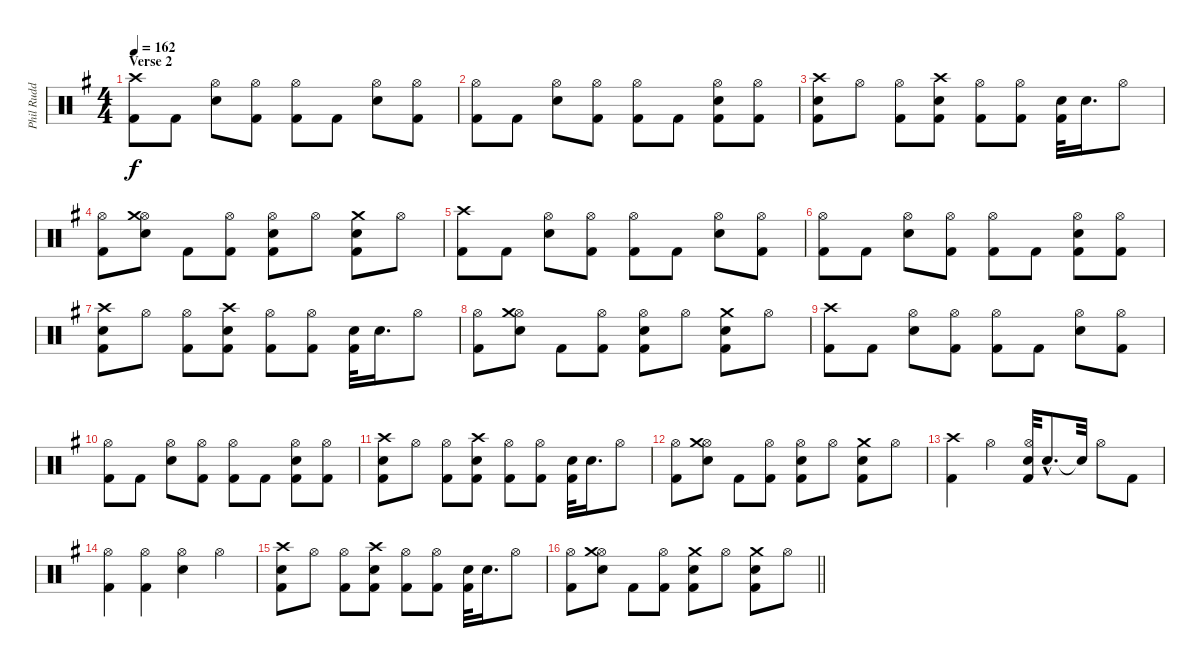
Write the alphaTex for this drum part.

\track ("Phil Rudd" "Phil Rudd") {instrument percussion}
\staff {score}
\articulation defaults
\ts (4 4)
\section ("" "Verse 2")
\tempo 162
\clef neutral
\ks g
("Crash high (hit)" "Kick (hit) 2").8{dy f} "Kick (hit) 2".8 ("Hi-Hat (open)" "Snare (hit) 2").8 ("Kick (hit) 2" "Hi-Hat (open)").8 ("Hi-Hat (open)" "Kick (hit) 2").8 "Kick (hit) 2".8 ("Hi-Hat (open)" "Snare (hit) 2").8 ("Hi-Hat (open)" "Kick (hit) 2").8 |
("Hi-Hat (open)" "Kick (hit) 2").8 "Kick (hit) 2".8 ("Hi-Hat (open)" "Snare (hit) 2").8 ("Hi-Hat (open)" "Kick (hit) 2").8 ("Hi-Hat (open)" "Kick (hit) 2").8 "Kick (hit) 2".8 ("Kick (hit) 2" "Hi-Hat (open)" "Snare (hit) 2").8 ("Kick (hit) 2" "Hi-Hat (open)").8 |
("Crash high (hit)" "Snare (hit) 2" "Kick (hit) 2").8 "Hi-Hat (open)".8 ("Hi-Hat (open)" "Kick (hit) 2").8 ("Crash high (hit)" "Snare (hit) 2" "Kick (hit) 2").8 ("Hi-Hat (open)" "Kick (hit) 2").8 ("Kick (hit) 2" "Hi-Hat (open)").8 ("Snare (hit) 2" "Kick (hit) 2").32 "Snare (hit) 2".16{d} "Hi-Hat (open)".8 |
("Kick (hit) 2" "Hi-Hat (open)").8 ("Hi-Hat (open)" "Crash medium (hit)" "Snare (hit) 2").8 "Kick (hit) 2".8 ("Kick (hit) 2" "Hi-Hat (open)").8 ("Hi-Hat (open)" "Kick (hit) 2" "Snare (hit) 2").8 "Hi-Hat (open)".8 ("Snare (hit) 2" "Kick (hit) 2" "Crash medium (hit)").8 "Hi-Hat (open)".8 |
("Crash high (hit)" "Kick (hit) 2").8 "Kick (hit) 2".8 ("Hi-Hat (open)" "Snare (hit) 2").8 ("Kick (hit) 2" "Hi-Hat (open)").8 ("Hi-Hat (open)" "Kick (hit) 2").8 "Kick (hit) 2".8 ("Hi-Hat (open)" "Snare (hit) 2").8 ("Hi-Hat (open)" "Kick (hit) 2").8 |
("Hi-Hat (open)" "Kick (hit) 2").8 "Kick (hit) 2".8 ("Hi-Hat (open)" "Snare (hit) 2").8 ("Hi-Hat (open)" "Kick (hit) 2").8 ("Hi-Hat (open)" "Kick (hit) 2").8 "Kick (hit) 2".8 ("Kick (hit) 2" "Hi-Hat (open)" "Snare (hit) 2").8 ("Kick (hit) 2" "Hi-Hat (open)").8 |
("Crash high (hit)" "Snare (hit) 2" "Kick (hit) 2").8 "Hi-Hat (open)".8 ("Hi-Hat (open)" "Kick (hit) 2").8 ("Crash high (hit)" "Snare (hit) 2" "Kick (hit) 2").8 ("Hi-Hat (open)" "Kick (hit) 2").8 ("Kick (hit) 2" "Hi-Hat (open)").8 ("Snare (hit) 2" "Kick (hit) 2").32 "Snare (hit) 2".16{d} "Hi-Hat (open)".8 |
("Kick (hit) 2" "Hi-Hat (open)").8 ("Hi-Hat (open)" "Crash medium (hit)" "Snare (hit) 2").8 "Kick (hit) 2".8 ("Kick (hit) 2" "Hi-Hat (open)").8 ("Hi-Hat (open)" "Kick (hit) 2" "Snare (hit) 2").8 "Hi-Hat (open)".8 ("Snare (hit) 2" "Kick (hit) 2" "Crash medium (hit)").8 "Hi-Hat (open)".8 |
("Crash high (hit)" "Kick (hit) 2").8 "Kick (hit) 2".8 ("Hi-Hat (open)" "Snare (hit) 2").8 ("Kick (hit) 2" "Hi-Hat (open)").8 ("Hi-Hat (open)" "Kick (hit) 2").8 "Kick (hit) 2".8 ("Hi-Hat (open)" "Snare (hit) 2").8 ("Hi-Hat (open)" "Kick (hit) 2").8 |
("Hi-Hat (open)" "Kick (hit) 2").8 "Kick (hit) 2".8 ("Hi-Hat (open)" "Snare (hit) 2").8 ("Hi-Hat (open)" "Kick (hit) 2").8 ("Hi-Hat (open)" "Kick (hit) 2").8 "Kick (hit) 2".8 ("Kick (hit) 2" "Hi-Hat (open)" "Snare (hit) 2").8 ("Kick (hit) 2" "Hi-Hat (open)").8 |
("Crash high (hit)" "Snare (hit) 2" "Kick (hit) 2").8 "Hi-Hat (open)".8 ("Hi-Hat (open)" "Kick (hit) 2").8 ("Crash high (hit)" "Snare (hit) 2" "Kick (hit) 2").8 ("Hi-Hat (open)" "Kick (hit) 2").8 ("Kick (hit) 2" "Hi-Hat (open)").8 ("Snare (hit) 2" "Kick (hit) 2").32 "Snare (hit) 2".16{d} "Hi-Hat (open)".8 |
("Kick (hit) 2" "Hi-Hat (open)").8 ("Hi-Hat (open)" "Crash medium (hit)" "Snare (hit) 2").8 "Kick (hit) 2".8 ("Kick (hit) 2" "Hi-Hat (open)").8 ("Hi-Hat (open)" "Kick (hit) 2" "Snare (hit) 2").8 "Hi-Hat (open)".8 ("Snare (hit) 2" "Kick (hit) 2" "Crash medium (hit)").8 "Hi-Hat (open)".8 |
("Crash high (hit)" "Kick (hit) 2").4 "Hi-Hat (open)".4 ("Snare (hit) 2" "Kick (hit) 2" "Hi-Hat (open)").32 "Snare (hit) 2"{hac}.8{d} "Snare (hit)"{t}.32 "Hi-Hat (open)".8 "Kick (hit) 2".8 |
("Hi-Hat (open)" "Kick (hit) 2").4 ("Kick (hit) 2" "Hi-Hat (open)").4 ("Hi-Hat (open)" "Snare (hit) 2").4 "Hi-Hat (open)".4 |
("Crash high (hit)" "Snare (hit) 2" "Kick (hit) 2").8 "Hi-Hat (open)".8 ("Hi-Hat (open)" "Kick (hit) 2").8 ("Crash high (hit)" "Snare (hit) 2" "Kick (hit) 2").8 ("Hi-Hat (open)" "Kick (hit) 2").8 ("Kick (hit) 2" "Hi-Hat (open)").8 ("Snare (hit) 2" "Kick (hit) 2").32 "Snare (hit) 2".16{d} "Hi-Hat (open)".8 |
\barLineRight lightlight
("Kick (hit) 2" "Hi-Hat (open)").8 ("Hi-Hat (open)" "Crash medium (hit)" "Snare (hit) 2").8 "Kick (hit) 2".8 ("Kick (hit) 2" "Hi-Hat (open)").8 ("Crash medium (hit)" "Kick (hit) 2" "Snare (hit) 2").8 "Hi-Hat (open)".8 ("Snare (hit) 2" "Kick (hit) 2" "Crash medium (hit)").8 "Hi-Hat (open)".8
